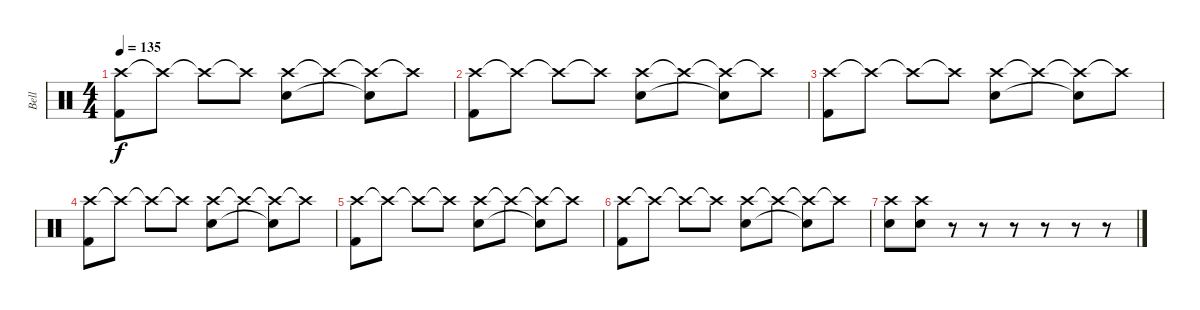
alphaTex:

\track ("Bell" "Bell") {instrument percussion}
\staff {score}
\articulation defaults
\ts (4 4)
\tempo 135
\clef neutral
\ks c
("Crash high (hit)" "Kick (hit) 2").8{dy f} "Crash high (hit)"{t}.8 "Crash high (hit)"{t}.8 "Crash high (hit)"{t}.8 ("Crash high (hit)" "Snare (hit) 2").8 "Crash high (hit)"{t}.8 ("Crash high (hit)"{t} "Snare (hit) 2"{t}).8 "Crash high (hit)"{t}.8 |
("Crash high (hit)" "Kick (hit) 2").8 "Crash high (hit)"{t}.8 "Crash high (hit)"{t}.8 "Crash high (hit)"{t}.8 ("Crash high (hit)" "Snare (hit) 2").8 "Crash high (hit)"{t}.8 ("Crash high (hit)"{t} "Snare (hit) 2"{t}).8 "Crash high (hit)"{t}.8 |
("Crash high (hit)" "Kick (hit) 2").8 "Crash high (hit)"{t}.8 "Crash high (hit)"{t}.8 "Crash high (hit)"{t}.8 ("Crash high (hit)" "Snare (hit) 2").8 "Crash high (hit)"{t}.8 ("Crash high (hit)"{t} "Snare (hit) 2"{t}).8 "Crash high (hit)"{t}.8 |
("Crash high (hit)" "Kick (hit) 2").8 "Crash high (hit)"{t}.8 "Crash high (hit)"{t}.8 "Crash high (hit)"{t}.8 ("Crash high (hit)" "Snare (hit) 2").8 "Crash high (hit)"{t}.8 ("Crash high (hit)"{t} "Snare (hit) 2"{t}).8 "Crash high (hit)"{t}.8 |
("Crash high (hit)" "Kick (hit) 2").8 "Crash high (hit)"{t}.8 "Crash high (hit)"{t}.8 "Crash high (hit)"{t}.8 ("Crash high (hit)" "Snare (hit) 2").8 "Crash high (hit)"{t}.8 ("Crash high (hit)"{t} "Snare (hit) 2"{t}).8 "Crash high (hit)"{t}.8 |
("Crash high (hit)" "Kick (hit) 2").8 "Crash high (hit)"{t}.8 "Crash high (hit)"{t}.8 "Crash high (hit)"{t}.8 ("Crash high (hit)" "Snare (hit) 2").8 "Crash high (hit)"{t}.8 ("Crash high (hit)"{t} "Snare (hit) 2"{t}).8 "Crash high (hit)"{t}.8 |
("Crash high (hit)" "Snare (hit) 2").8 ("Crash high (hit)" "Snare (hit) 2").8 r.8 r.8 r.8 r.8 r.8 r.8
